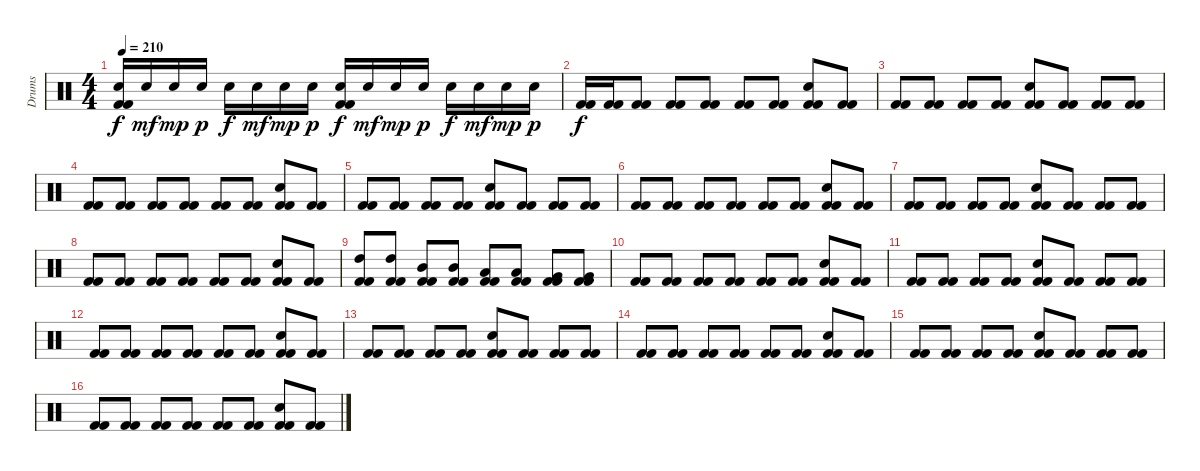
\track ("Drums" "Drums") {instrument percussion}
\staff {score}
\articulation defaults
\ts (4 4)
\tempo 210
\clef neutral
\ks c
("Snare (hit) 2" "Kick (hit) 2" "Kick (hit) 2").16{dy f} "Snare (hit) 2".16{dy mf} "Snare (hit) 2".16{dy mp} "Snare (hit) 2".16{dy p} "Snare (hit) 2".16{dy f} "Snare (hit) 2".16{dy mf} "Snare (hit) 2".16{dy mp} "Snare (hit) 2".16{dy p} ("Snare (hit) 2" "Kick (hit) 2" "Kick (hit) 2").16{dy f} "Snare (hit) 2".16{dy mf} "Snare (hit) 2".16{dy mp} "Snare (hit) 2".16{dy p} "Snare (hit) 2".16{dy f} "Snare (hit) 2".16{dy mf} "Snare (hit) 2".16{dy mp} "Snare (hit) 2".16{dy p} |
("Kick (hit) 2" "Kick (hit) 2").16{dy f} ("Kick (hit) 2" "Kick (hit) 2").16 ("Kick (hit) 2" "Kick (hit) 2").8 ("Kick (hit) 2" "Kick (hit) 2").8 ("Kick (hit) 2" "Kick (hit) 2").8 ("Kick (hit) 2" "Kick (hit) 2").8 ("Kick (hit) 2" "Kick (hit) 2").8 ("Snare (hit) 2" "Kick (hit) 2" "Kick (hit) 2").8 ("Kick (hit) 2" "Kick (hit) 2").8 |
("Kick (hit) 2" "Kick (hit) 2").8 ("Kick (hit) 2" "Kick (hit) 2").8 ("Kick (hit) 2" "Kick (hit) 2").8 ("Kick (hit) 2" "Kick (hit) 2").8 ("Snare (hit) 2" "Kick (hit) 2" "Kick (hit) 2").8 ("Kick (hit) 2" "Kick (hit) 2").8 ("Kick (hit) 2" "Kick (hit) 2").8 ("Kick (hit) 2" "Kick (hit) 2").8 |
("Kick (hit) 2" "Kick (hit) 2").8 ("Kick (hit) 2" "Kick (hit) 2").8 ("Kick (hit) 2" "Kick (hit) 2").8 ("Kick (hit) 2" "Kick (hit) 2").8 ("Kick (hit) 2" "Kick (hit) 2").8 ("Kick (hit) 2" "Kick (hit) 2").8 ("Snare (hit) 2" "Kick (hit) 2" "Kick (hit) 2").8 ("Kick (hit) 2" "Kick (hit) 2").8 |
("Kick (hit) 2" "Kick (hit) 2").8 ("Kick (hit) 2" "Kick (hit) 2").8 ("Kick (hit) 2" "Kick (hit) 2").8 ("Kick (hit) 2" "Kick (hit) 2").8 ("Snare (hit) 2" "Kick (hit) 2" "Kick (hit) 2").8 ("Kick (hit) 2" "Kick (hit) 2").8 ("Kick (hit) 2" "Kick (hit) 2").8 ("Kick (hit) 2" "Kick (hit) 2").8 |
("Kick (hit) 2" "Kick (hit) 2").8 ("Kick (hit) 2" "Kick (hit) 2").8 ("Kick (hit) 2" "Kick (hit) 2").8 ("Kick (hit) 2" "Kick (hit) 2").8 ("Kick (hit) 2" "Kick (hit) 2").8 ("Kick (hit) 2" "Kick (hit) 2").8 ("Snare (hit) 2" "Kick (hit) 2" "Kick (hit) 2").8 ("Kick (hit) 2" "Kick (hit) 2").8 |
("Kick (hit) 2" "Kick (hit) 2").8 ("Kick (hit) 2" "Kick (hit) 2").8 ("Kick (hit) 2" "Kick (hit) 2").8 ("Kick (hit) 2" "Kick (hit) 2").8 ("Snare (hit) 2" "Kick (hit) 2" "Kick (hit) 2").8 ("Kick (hit) 2" "Kick (hit) 2").8 ("Kick (hit) 2" "Kick (hit) 2").8 ("Kick (hit) 2" "Kick (hit) 2").8 |
("Kick (hit) 2" "Kick (hit) 2").8 ("Kick (hit) 2" "Kick (hit) 2").8 ("Kick (hit) 2" "Kick (hit) 2").8 ("Kick (hit) 2" "Kick (hit) 2").8 ("Kick (hit) 2" "Kick (hit) 2").8 ("Kick (hit) 2" "Kick (hit) 2").8 ("Snare (hit) 2" "Kick (hit) 2" "Kick (hit) 2").8 ("Kick (hit) 2" "Kick (hit) 2").8 |
("High Tom (hit)" "Kick (hit) 2" "Kick (hit) 2").8 ("High Tom (hit)" "Kick (hit) 2" "Kick (hit) 2").8 ("Mid Tom (hit)" "Kick (hit) 2" "Kick (hit) 2").8 ("Mid Tom (hit)" "Kick (hit) 2" "Kick (hit) 2").8 ("Low Tom (hit)" "Kick (hit) 2" "Kick (hit) 2").8 ("Low Tom (hit)" "Kick (hit) 2" "Kick (hit) 2").8 ("Very Low Tom (hit)" "Kick (hit) 2" "Kick (hit) 2").8 ("Very Low Tom (hit)" "Kick (hit) 2" "Kick (hit) 2").8 |
("Kick (hit) 2" "Kick (hit) 2").8 ("Kick (hit) 2" "Kick (hit) 2").8 ("Kick (hit) 2" "Kick (hit) 2").8 ("Kick (hit) 2" "Kick (hit) 2").8 ("Kick (hit) 2" "Kick (hit) 2").8 ("Kick (hit) 2" "Kick (hit) 2").8 ("Snare (hit) 2" "Kick (hit) 2" "Kick (hit) 2").8 ("Kick (hit) 2" "Kick (hit) 2").8 |
("Kick (hit) 2" "Kick (hit) 2").8 ("Kick (hit) 2" "Kick (hit) 2").8 ("Kick (hit) 2" "Kick (hit) 2").8 ("Kick (hit) 2" "Kick (hit) 2").8 ("Snare (hit) 2" "Kick (hit) 2" "Kick (hit) 2").8 ("Kick (hit) 2" "Kick (hit) 2").8 ("Kick (hit) 2" "Kick (hit) 2").8 ("Kick (hit) 2" "Kick (hit) 2").8 |
("Kick (hit) 2" "Kick (hit) 2").8 ("Kick (hit) 2" "Kick (hit) 2").8 ("Kick (hit) 2" "Kick (hit) 2").8 ("Kick (hit) 2" "Kick (hit) 2").8 ("Kick (hit) 2" "Kick (hit) 2").8 ("Kick (hit) 2" "Kick (hit) 2").8 ("Snare (hit) 2" "Kick (hit) 2" "Kick (hit) 2").8 ("Kick (hit) 2" "Kick (hit) 2").8 |
("Kick (hit) 2" "Kick (hit) 2").8 ("Kick (hit) 2" "Kick (hit) 2").8 ("Kick (hit) 2" "Kick (hit) 2").8 ("Kick (hit) 2" "Kick (hit) 2").8 ("Snare (hit) 2" "Kick (hit) 2" "Kick (hit) 2").8 ("Kick (hit) 2" "Kick (hit) 2").8 ("Kick (hit) 2" "Kick (hit) 2").8 ("Kick (hit) 2" "Kick (hit) 2").8 |
("Kick (hit) 2" "Kick (hit) 2").8 ("Kick (hit) 2" "Kick (hit) 2").8 ("Kick (hit) 2" "Kick (hit) 2").8 ("Kick (hit) 2" "Kick (hit) 2").8 ("Kick (hit) 2" "Kick (hit) 2").8 ("Kick (hit) 2" "Kick (hit) 2").8 ("Snare (hit) 2" "Kick (hit) 2" "Kick (hit) 2").8 ("Kick (hit) 2" "Kick (hit) 2").8 |
("Kick (hit) 2" "Kick (hit) 2").8 ("Kick (hit) 2" "Kick (hit) 2").8 ("Kick (hit) 2" "Kick (hit) 2").8 ("Kick (hit) 2" "Kick (hit) 2").8 ("Snare (hit) 2" "Kick (hit) 2" "Kick (hit) 2").8 ("Kick (hit) 2" "Kick (hit) 2").8 ("Kick (hit) 2" "Kick (hit) 2").8 ("Kick (hit) 2" "Kick (hit) 2").8 |
("Kick (hit) 2" "Kick (hit) 2").8 ("Kick (hit) 2" "Kick (hit) 2").8 ("Kick (hit) 2" "Kick (hit) 2").8 ("Kick (hit) 2" "Kick (hit) 2").8 ("Kick (hit) 2" "Kick (hit) 2").8 ("Kick (hit) 2" "Kick (hit) 2").8 ("Snare (hit) 2" "Kick (hit) 2" "Kick (hit) 2").8 ("Kick (hit) 2" "Kick (hit) 2").8
